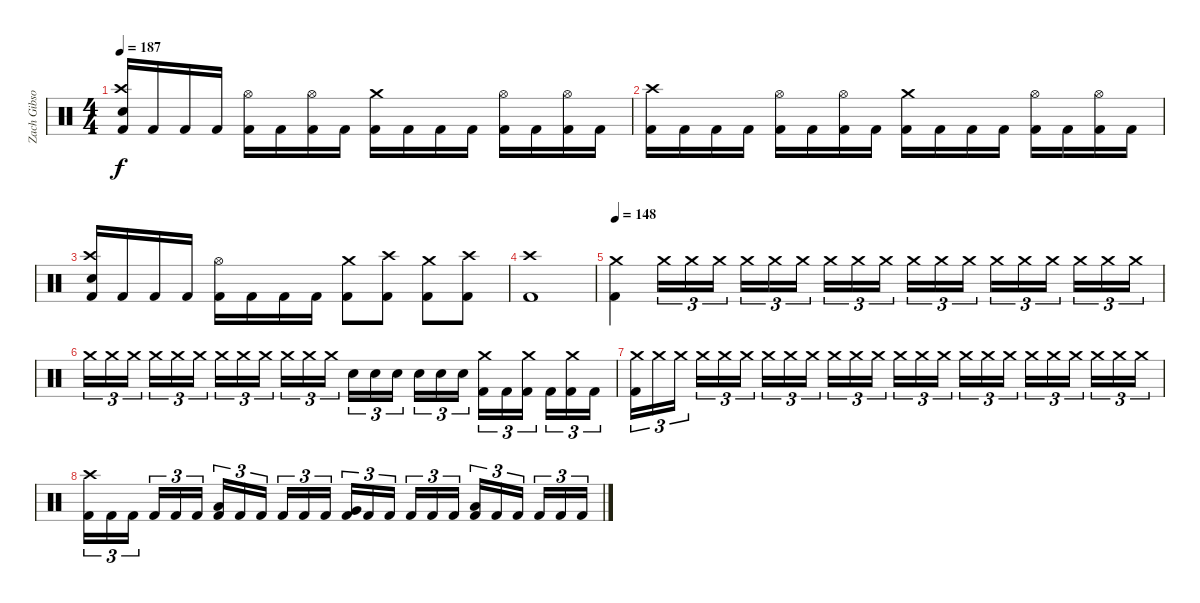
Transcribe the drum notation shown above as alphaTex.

\track ("Zach Gibson (Ex-Drums)" "Zach Gibso") {instrument percussion}
\staff {score}
\articulation defaults
\ts (4 4)
\tempo 187
\clef neutral
\ks c
("Snare (hit) 2" "Crash high (hit)" "Kick (hit) 2").16{dy f} "Kick (hit) 2".16 "Kick (hit) 2".16 "Kick (hit) 2".16 ("Hi-Hat (open)" "Kick (hit) 2").16 "Kick (hit) 2".16 ("Hi-Hat (open)" "Kick (hit) 2").16 "Kick (hit) 2".16 ("Crash medium (hit)" "Kick (hit) 2").16 "Kick (hit) 2".16 "Kick (hit) 2".16 "Kick (hit) 2".16 ("Hi-Hat (open)" "Kick (hit) 2").16 "Kick (hit) 2".16 ("Hi-Hat (open)" "Kick (hit) 2").16 "Kick (hit) 2".16 |
("Crash high (hit)" "Kick (hit) 2").16 "Kick (hit) 2".16 "Kick (hit) 2".16 "Kick (hit) 2".16 ("Hi-Hat (open)" "Kick (hit) 2").16 "Kick (hit) 2".16 ("Hi-Hat (open)" "Kick (hit) 2").16 "Kick (hit) 2".16 ("Crash medium (hit)" "Kick (hit) 2").16 "Kick (hit) 2".16 "Kick (hit) 2".16 "Kick (hit) 2".16 ("Hi-Hat (open)" "Kick (hit) 2").16 "Kick (hit) 2".16 ("Hi-Hat (open)" "Kick (hit) 2").16 "Kick (hit) 2".16 |
("Snare (hit) 2" "Crash high (hit)" "Kick (hit) 2").16 "Kick (hit) 2".16 "Kick (hit) 2".16 "Kick (hit) 2".16 ("Hi-Hat (open)" "Kick (hit) 2").16 "Kick (hit) 2".16 "Kick (hit) 2".16 "Kick (hit) 2".16 ("Kick (hit) 2" "Crash medium (hit)").8 ("Kick (hit) 2" "Crash high (hit)").8 ("Kick (hit) 2" "Crash medium (hit)").8 ("Kick (hit) 2" "Crash high (hit)").8 |
("Crash high (hit)" "Kick (hit) 2").1 |
\tempo 148
("Crash medium (hit)" "Kick (hit) 2").4 "Crash medium (hit)".16{tu (3 2)} "Crash medium (hit)".16{tu (3 2)} "Crash medium (hit)".16{tu (3 2)} "Crash medium (hit)".16{tu (3 2)} "Crash medium (hit)".16{tu (3 2)} "Crash medium (hit)".16{tu (3 2)} "Crash medium (hit)".16{tu (3 2)} "Crash medium (hit)".16{tu (3 2)} "Crash medium (hit)".16{tu (3 2)} "Crash medium (hit)".16{tu (3 2)} "Crash medium (hit)".16{tu (3 2)} "Crash medium (hit)".16{tu (3 2)} "Crash medium (hit)".16{tu (3 2)} "Crash medium (hit)".16{tu (3 2)} "Crash medium (hit)".16{tu (3 2)} "Crash medium (hit)".16{tu (3 2)} "Crash medium (hit)".16{tu (3 2)} "Crash medium (hit)".16{tu (3 2)} |
"Crash medium (hit)".16{tu (3 2)} "Crash medium (hit)".16{tu (3 2)} "Crash medium (hit)".16{tu (3 2)} "Crash medium (hit)".16{tu (3 2)} "Crash medium (hit)".16{tu (3 2)} "Crash medium (hit)".16{tu (3 2)} "Crash medium (hit)".16{tu (3 2)} "Crash medium (hit)".16{tu (3 2)} "Crash medium (hit)".16{tu (3 2)} "Crash medium (hit)".16{tu (3 2)} "Crash medium (hit)".16{tu (3 2)} "Crash medium (hit)".16{tu (3 2)} "Snare (hit) 2".16{tu (3 2)} "Snare (hit) 2".16{tu (3 2)} "Snare (hit) 2".16{tu (3 2)} "Snare (hit) 2".16{tu (3 2)} "Snare (hit) 2".16{tu (3 2)} "Snare (hit) 2".16{tu (3 2)} ("Crash medium (hit)" "Kick (hit) 2").16{tu (3 2)} "Kick (hit) 2".16{tu (3 2)} ("Crash medium (hit)" "Kick (hit) 2").16{tu (3 2)} "Kick (hit) 2".16{tu (3 2)} ("Crash medium (hit)" "Kick (hit) 2").16{tu (3 2)} "Kick (hit) 2".16{tu (3 2)} |
("Crash medium (hit)" "Kick (hit) 2").16{tu (3 2)} "Crash medium (hit)".16{tu (3 2)} "Crash medium (hit)".16{tu (3 2)} "Crash medium (hit)".16{tu (3 2)} "Crash medium (hit)".16{tu (3 2)} "Crash medium (hit)".16{tu (3 2)} "Crash medium (hit)".16{tu (3 2)} "Crash medium (hit)".16{tu (3 2)} "Crash medium (hit)".16{tu (3 2)} "Crash medium (hit)".16{tu (3 2)} "Crash medium (hit)".16{tu (3 2)} "Crash medium (hit)".16{tu (3 2)} "Crash medium (hit)".16{tu (3 2)} "Crash medium (hit)".16{tu (3 2)} "Crash medium (hit)".16{tu (3 2)} "Crash medium (hit)".16{tu (3 2)} "Crash medium (hit)".16{tu (3 2)} "Crash medium (hit)".16{tu (3 2)} "Crash medium (hit)".16{tu (3 2)} "Crash medium (hit)".16{tu (3 2)} "Crash medium (hit)".16{tu (3 2)} "Crash medium (hit)".16{tu (3 2)} "Crash medium (hit)".16{tu (3 2)} "Crash medium (hit)".16{tu (3 2)} |
("Crash high (hit)" "Kick (hit) 2").16{tu (3 2)} "Kick (hit) 2".16{tu (3 2)} "Kick (hit) 2".16{tu (3 2)} "Kick (hit) 2".16{tu (3 2)} "Kick (hit) 2".16{tu (3 2)} "Kick (hit) 2".16{tu (3 2)} ("Low Tom (hit)" "Kick (hit) 2").16{tu (3 2)} "Kick (hit) 2".16{tu (3 2)} "Kick (hit) 2".16{tu (3 2)} "Kick (hit) 2".16{tu (3 2)} "Kick (hit) 2".16{tu (3 2)} "Kick (hit) 2".16{tu (3 2)} ("Very Low Tom (hit)" "Kick (hit) 2").16{tu (3 2)} "Kick (hit) 2".16{tu (3 2)} "Kick (hit) 2".16{tu (3 2)} "Kick (hit) 2".16{tu (3 2)} "Kick (hit) 2".16{tu (3 2)} "Kick (hit) 2".16{tu (3 2)} ("Low Floor Tom (hit)" "Kick (hit) 2").16{tu (3 2)} "Kick (hit) 2".16{tu (3 2)} "Kick (hit) 2".16{tu (3 2)} "Kick (hit) 2".16{tu (3 2)} "Kick (hit) 2".16{tu (3 2)} "Kick (hit) 2".16{tu (3 2)}
